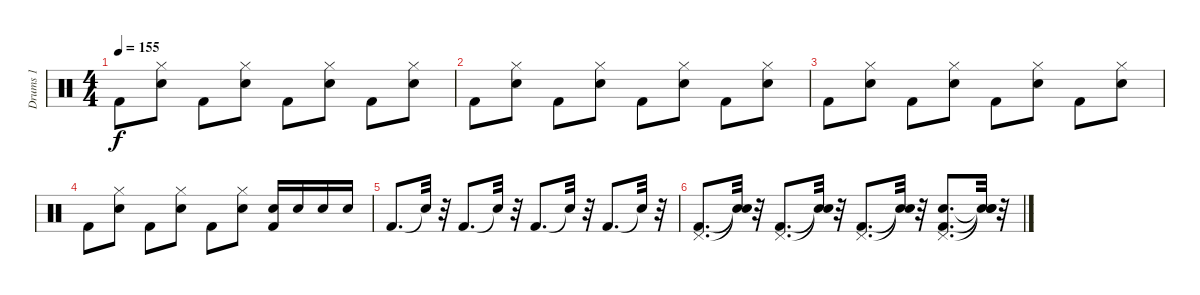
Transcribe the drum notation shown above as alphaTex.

\track ("Drums 1" "Drums 1") {instrument percussion}
\staff {score}
\articulation defaults
\ts (4 4)
\tempo 155
\clef neutral
\ks c "Kick (hit) 2".8{dy f}
("Snare (hit) 2" "Hi-Hat (closed)").8 "Kick (hit) 2".8 ("Snare (hit) 2" "Hi-Hat (closed)").8 "Kick (hit) 2".8 ("Snare (hit) 2" "Hi-Hat (closed)").8 "Kick (hit) 2".8 ("Snare (hit) 2" "Hi-Hat (closed)").8 |
"Kick (hit) 2".8 ("Snare (hit) 2" "Hi-Hat (closed)").8 "Kick (hit) 2".8 ("Snare (hit) 2" "Hi-Hat (closed)").8 "Kick (hit) 2".8 ("Snare (hit) 2" "Hi-Hat (closed)").8 "Kick (hit) 2".8 ("Snare (hit) 2" "Hi-Hat (closed)").8 |
"Kick (hit) 2".8 ("Snare (hit) 2" "Hi-Hat (closed)").8 "Kick (hit) 2".8 ("Snare (hit) 2" "Hi-Hat (closed)").8 "Kick (hit) 2".8 ("Snare (hit) 2" "Hi-Hat (closed)").8 "Kick (hit) 2".8 ("Snare (hit) 2" "Hi-Hat (closed)").8 |
"Kick (hit) 2".8 ("Snare (hit) 2" "Hi-Hat (closed)").8 "Kick (hit) 2".8 ("Snare (hit) 2" "Hi-Hat (closed)").8 "Kick (hit) 2".8 ("Snare (hit) 2" "Hi-Hat (closed)").8 ("Kick (hit) 2" "Snare (hit) 2").16 "Snare (hit) 2".16 "Snare (hit) 2".16 "Snare (hit) 2".16 |
"Kick (hit) 2".8{d} "Snare (hit)"{t}.32 r.32 "Kick (hit) 2".8{d} "Snare (hit)"{t}.32 r.32 "Kick (hit) 2".8{d} "Snare (hit)"{t}.32 r.32 "Kick (hit) 2".8{d} "Snare (hit)"{t}.32 r.32 |
("Kick (hit) 2" "Pedal Hi-Hat (hit)").8{d} ("Snare (hit)"{t} "Snare (hit)"{t}).32 r.32 ("Kick (hit) 2" "Pedal Hi-Hat (hit)").8{d} ("Snare (hit)"{t} "Snare (hit)"{t}).32 r.32 ("Kick (hit) 2" "Pedal Hi-Hat (hit)").8{d} ("Snare (hit)"{t} "Snare (hit)"{t}).32 r.32 ("Kick (hit) 2" "Snare (hit) 2" "Pedal Hi-Hat (hit)").8{d} ("Snare (hit)"{t} "Snare (hit)"{t} "Snare (hit)"{t}).32 r.32
